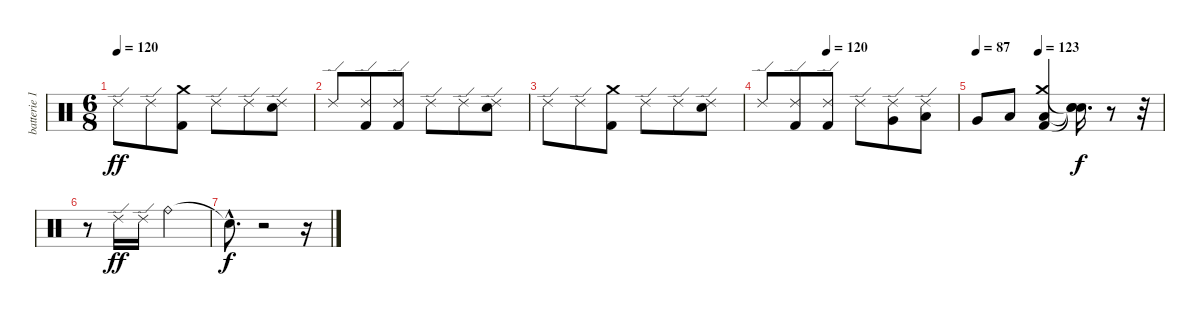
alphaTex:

\track ("batterie 1" "batterie 1") {instrument percussion}
\staff {score}
\articulation defaults
\ts (6 8)
\tempo 120
\clef neutral
\ks c "Ride (edge) 2".8{dy ff} "Ride (edge) 2".8
("Kick (hit) 2" "Crash medium (hit)").8 "Ride (edge) 2".8 "Ride (edge) 2".8 ("Electric Snare (hit)" "Ride (edge) 2").8 |
"Ride (edge) 2".8 ("Kick (hit) 2" "Ride (edge) 2").8 ("Kick (hit) 2" "Ride (edge) 2").8 "Ride (edge) 2".8 "Ride (edge) 2".8 ("Electric Snare (hit)" "Ride (edge) 2").8 |
"Ride (edge) 2".8 "Ride (edge) 2".8 ("Kick (hit) 2" "Crash medium (hit)").8 "Ride (edge) 2".8 "Ride (edge) 2".8 ("Electric Snare (hit)" "Ride (edge) 2").8 |
\tempo (120 0.3333333333333333)
"Ride (edge) 2".8 ("Kick (hit) 2" "Ride (edge) 2").8 ("Kick (hit) 2" "Ride (edge) 2").8 "Ride (edge) 2".8 ("Very Low Tom (hit)" "Ride (edge) 2").8 ("Low Tom (hit)" "Ride (edge) 2").8 |
\tempo 87
\tempo (123 0.3333333333333333)
"Very Low Tom (hit)".8 "Low Floor Tom (hit)".8 ("Kick (hit) 2" "Low Floor Tom (hit)" "Crash medium (hit)").4 ("Snare (hit)"{t} "Snare (hit)"{t} "Snare (hit)"{t}).16{d dy f} r.8 r.32 |
r.8 "Ride (edge) 2".16{dy ff} "Ride (edge) 2".16 "Ride (bell)".2 |
"Snare (hit)"{hac t}.8{d dy f} r.2 r.16
